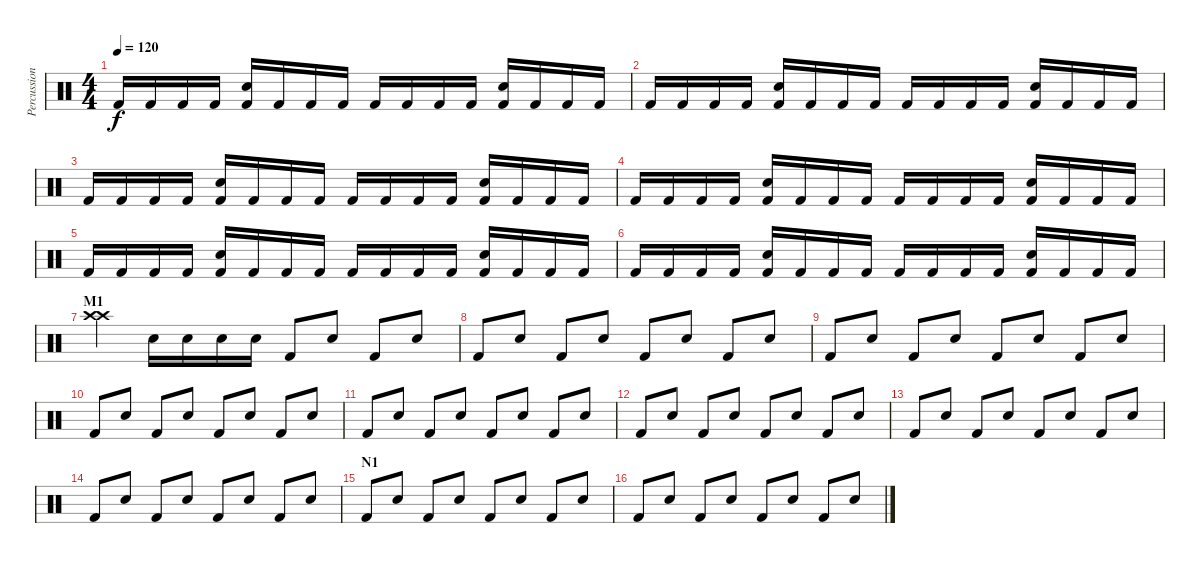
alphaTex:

\track ("Percussion" "Percussion") {instrument percussion}
\staff {score}
\articulation defaults
\ts (4 4)
\tempo 120
\clef neutral
\ks c "Kick (hit) 2".16{dy f} "Kick (hit) 2".16 "Kick (hit) 2".16 "Kick (hit) 2".16
("Kick (hit) 2" "Electric Snare (hit)").16 "Kick (hit) 2".16 "Kick (hit) 2".16 "Kick (hit) 2".16 "Kick (hit) 2".16 "Kick (hit) 2".16 "Kick (hit) 2".16 "Kick (hit) 2".16 ("Kick (hit) 2" "Electric Snare (hit)").16 "Kick (hit) 2".16 "Kick (hit) 2".16 "Kick (hit) 2".16 |
"Kick (hit) 2".16 "Kick (hit) 2".16 "Kick (hit) 2".16 "Kick (hit) 2".16 ("Kick (hit) 2" "Electric Snare (hit)").16 "Kick (hit) 2".16 "Kick (hit) 2".16 "Kick (hit) 2".16 "Kick (hit) 2".16 "Kick (hit) 2".16 "Kick (hit) 2".16 "Kick (hit) 2".16 ("Kick (hit) 2" "Electric Snare (hit)").16 "Kick (hit) 2".16 "Kick (hit) 2".16 "Kick (hit) 2".16 |
"Kick (hit) 2".16 "Kick (hit) 2".16 "Kick (hit) 2".16 "Kick (hit) 2".16 ("Kick (hit) 2" "Electric Snare (hit)").16 "Kick (hit) 2".16 "Kick (hit) 2".16 "Kick (hit) 2".16 "Kick (hit) 2".16 "Kick (hit) 2".16 "Kick (hit) 2".16 "Kick (hit) 2".16 ("Kick (hit) 2" "Electric Snare (hit)").16 "Kick (hit) 2".16 "Kick (hit) 2".16 "Kick (hit) 2".16 |
"Kick (hit) 2".16 "Kick (hit) 2".16 "Kick (hit) 2".16 "Kick (hit) 2".16 ("Kick (hit) 2" "Electric Snare (hit)").16 "Kick (hit) 2".16 "Kick (hit) 2".16 "Kick (hit) 2".16 "Kick (hit) 2".16 "Kick (hit) 2".16 "Kick (hit) 2".16 "Kick (hit) 2".16 ("Kick (hit) 2" "Electric Snare (hit)").16 "Kick (hit) 2".16 "Kick (hit) 2".16 "Kick (hit) 2".16 |
"Kick (hit) 2".16 "Kick (hit) 2".16 "Kick (hit) 2".16 "Kick (hit) 2".16 ("Kick (hit) 2" "Electric Snare (hit)").16 "Kick (hit) 2".16 "Kick (hit) 2".16 "Kick (hit) 2".16 "Kick (hit) 2".16 "Kick (hit) 2".16 "Kick (hit) 2".16 "Kick (hit) 2".16 ("Kick (hit) 2" "Electric Snare (hit)").16 "Kick (hit) 2".16 "Kick (hit) 2".16 "Kick (hit) 2".16 |
"Kick (hit) 2".16 "Kick (hit) 2".16 "Kick (hit) 2".16 "Kick (hit) 2".16 ("Kick (hit) 2" "Electric Snare (hit)").16 "Kick (hit) 2".16 "Kick (hit) 2".16 "Kick (hit) 2".16 "Kick (hit) 2".16 "Kick (hit) 2".16 "Kick (hit) 2".16 "Kick (hit) 2".16 ("Kick (hit) 2" "Electric Snare (hit)").16 "Kick (hit) 2".16 "Kick (hit) 2".16 "Kick (hit) 2".16 |
\section ("" "M1")
("Crash high (hit)" "Crash high (hit)").4 "Electric Snare (hit)".16 "Electric Snare (hit)".16 "Electric Snare (hit)".16 "Electric Snare (hit)".16 "Kick (hit) 2".8 "Electric Snare (hit)".8 "Kick (hit) 2".8 "Electric Snare (hit)".8 |
"Kick (hit) 2".8 "Electric Snare (hit)".8 "Kick (hit) 2".8 "Electric Snare (hit)".8 "Kick (hit) 2".8 "Electric Snare (hit)".8 "Kick (hit) 2".8 "Electric Snare (hit)".8 |
"Kick (hit) 2".8 "Electric Snare (hit)".8 "Kick (hit) 2".8 "Electric Snare (hit)".8 "Kick (hit) 2".8 "Electric Snare (hit)".8 "Kick (hit) 2".8 "Electric Snare (hit)".8 |
"Kick (hit) 2".8 "Electric Snare (hit)".8 "Kick (hit) 2".8 "Electric Snare (hit)".8 "Kick (hit) 2".8 "Electric Snare (hit)".8 "Kick (hit) 2".8 "Electric Snare (hit)".8 |
"Kick (hit) 2".8 "Electric Snare (hit)".8 "Kick (hit) 2".8 "Electric Snare (hit)".8 "Kick (hit) 2".8 "Electric Snare (hit)".8 "Kick (hit) 2".8 "Electric Snare (hit)".8 |
"Kick (hit) 2".8 "Electric Snare (hit)".8 "Kick (hit) 2".8 "Electric Snare (hit)".8 "Kick (hit) 2".8 "Electric Snare (hit)".8 "Kick (hit) 2".8 "Electric Snare (hit)".8 |
"Kick (hit) 2".8 "Electric Snare (hit)".8 "Kick (hit) 2".8 "Electric Snare (hit)".8 "Kick (hit) 2".8 "Electric Snare (hit)".8 "Kick (hit) 2".8 "Electric Snare (hit)".8 |
"Kick (hit) 2".8 "Electric Snare (hit)".8 "Kick (hit) 2".8 "Electric Snare (hit)".8 "Kick (hit) 2".8 "Electric Snare (hit)".8 "Kick (hit) 2".8 "Electric Snare (hit)".8 |
\section ("" "N1")
"Kick (hit) 2".8 "Electric Snare (hit)".8 "Kick (hit) 2".8 "Electric Snare (hit)".8 "Kick (hit) 2".8 "Electric Snare (hit)".8 "Kick (hit) 2".8 "Electric Snare (hit)".8 |
"Kick (hit) 2".8 "Electric Snare (hit)".8 "Kick (hit) 2".8 "Electric Snare (hit)".8 "Kick (hit) 2".8 "Electric Snare (hit)".8 "Kick (hit) 2".8 "Electric Snare (hit)".8
